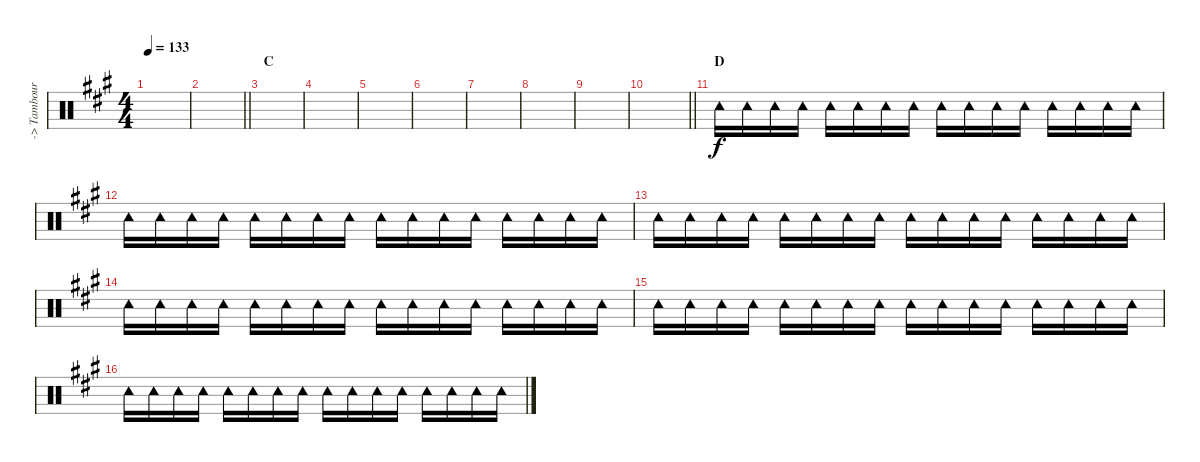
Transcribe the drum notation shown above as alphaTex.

\track ("-> Tambourine" "-> Tambour") {instrument percussion}
\staff {score}
\articulation defaults
\ts (4 4)
\tempo 133
\clef neutral
\ks a
|
\barLineRight lightlight
|
\section ("" "C")
|
|
|
|
|
|
|
\barLineRight lightlight
|
\section ("" "D")
"Tambourine (hit)".16 "Tambourine (hit)".16 "Tambourine (hit)".16 "Tambourine (hit)".16 "Tambourine (hit)".16 "Tambourine (hit)".16 "Tambourine (hit)".16 "Tambourine (hit)".16 "Tambourine (hit)".16 "Tambourine (hit)".16 "Tambourine (hit)".16 "Tambourine (hit)".16 "Tambourine (hit)".16 "Tambourine (hit)".16 "Tambourine (hit)".16 "Tambourine (hit)".16 |
"Tambourine (hit)".16 "Tambourine (hit)".16 "Tambourine (hit)".16 "Tambourine (hit)".16 "Tambourine (hit)".16 "Tambourine (hit)".16 "Tambourine (hit)".16 "Tambourine (hit)".16 "Tambourine (hit)".16 "Tambourine (hit)".16 "Tambourine (hit)".16 "Tambourine (hit)".16 "Tambourine (hit)".16 "Tambourine (hit)".16 "Tambourine (hit)".16 "Tambourine (hit)".16 |
"Tambourine (hit)".16 "Tambourine (hit)".16 "Tambourine (hit)".16 "Tambourine (hit)".16 "Tambourine (hit)".16 "Tambourine (hit)".16 "Tambourine (hit)".16 "Tambourine (hit)".16 "Tambourine (hit)".16 "Tambourine (hit)".16 "Tambourine (hit)".16 "Tambourine (hit)".16 "Tambourine (hit)".16 "Tambourine (hit)".16 "Tambourine (hit)".16 "Tambourine (hit)".16 |
"Tambourine (hit)".16 "Tambourine (hit)".16 "Tambourine (hit)".16 "Tambourine (hit)".16 "Tambourine (hit)".16 "Tambourine (hit)".16 "Tambourine (hit)".16 "Tambourine (hit)".16 "Tambourine (hit)".16 "Tambourine (hit)".16 "Tambourine (hit)".16 "Tambourine (hit)".16 "Tambourine (hit)".16 "Tambourine (hit)".16 "Tambourine (hit)".16 "Tambourine (hit)".16 |
"Tambourine (hit)".16 "Tambourine (hit)".16 "Tambourine (hit)".16 "Tambourine (hit)".16 "Tambourine (hit)".16 "Tambourine (hit)".16 "Tambourine (hit)".16 "Tambourine (hit)".16 "Tambourine (hit)".16 "Tambourine (hit)".16 "Tambourine (hit)".16 "Tambourine (hit)".16 "Tambourine (hit)".16 "Tambourine (hit)".16 "Tambourine (hit)".16 "Tambourine (hit)".16 |
"Tambourine (hit)".16 "Tambourine (hit)".16 "Tambourine (hit)".16 "Tambourine (hit)".16 "Tambourine (hit)".16 "Tambourine (hit)".16 "Tambourine (hit)".16 "Tambourine (hit)".16 "Tambourine (hit)".16 "Tambourine (hit)".16 "Tambourine (hit)".16 "Tambourine (hit)".16 "Tambourine (hit)".16 "Tambourine (hit)".16 "Tambourine (hit)".16 "Tambourine (hit)".16
